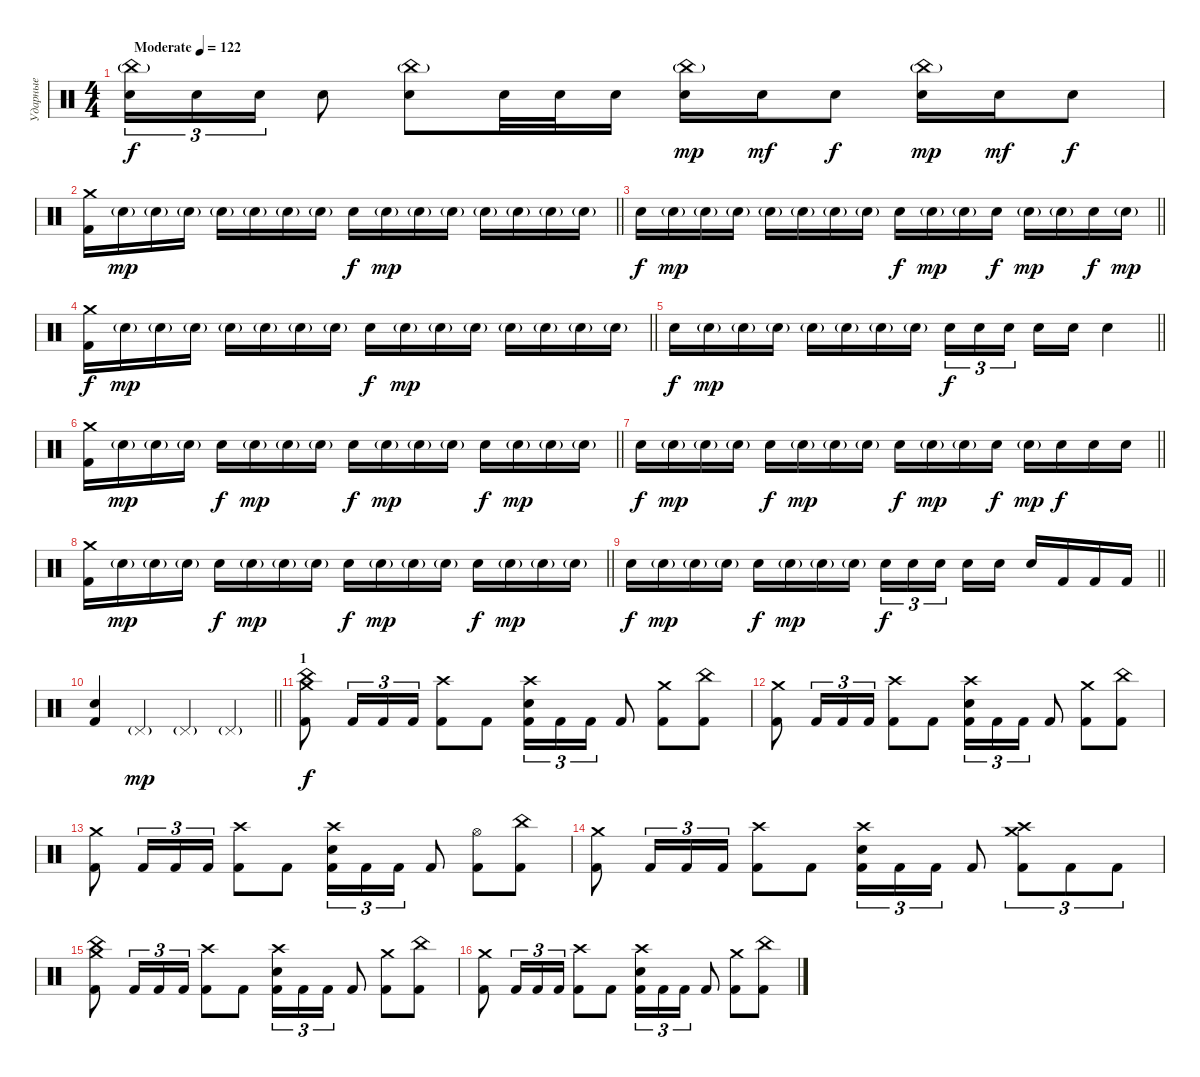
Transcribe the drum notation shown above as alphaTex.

\track ("Ударные" "Ударные") {instrument percussion}
\staff {score}
\articulation defaults
\ts (4 4)
\tempo (122 "Moderate")
\clef neutral
\ks c
("China (hit)"{g} "Snare (hit) 2").16{tu (3 2) dy f volume 7} "Snare (hit) 2".16{tu (3 2)} "Snare (hit) 2".16{tu (3 2)} "Snare (hit) 2".8 ("China (hit)"{g} "Snare (hit) 2").8 "Snare (hit) 2".32 "Snare (hit) 2".32 "Snare (hit) 2".16 ("China (hit)"{g} "Snare (hit) 2").16{dy mp} "Snare (hit) 2".16{dy mf} "Snare (hit) 2".8{dy f} ("China (hit)"{g} "Snare (hit) 2").16{dy mp} "Snare (hit) 2".16{dy mf} "Snare (hit) 2".8{dy f} |
\barLineRight lightlight
("Crash medium (hit)" "Kick (hit) 2").16{volume 13} "Electric Snare (hit)"{g}.16{dy mp} "Electric Snare (hit)"{g}.16 "Electric Snare (hit)"{g}.16 "Electric Snare (hit)"{g}.16 "Electric Snare (hit)"{g}.16 "Electric Snare (hit)"{g}.16 "Electric Snare (hit)"{g}.16 "Electric Snare (hit)".16{dy f} "Electric Snare (hit)"{g}.16{dy mp} "Electric Snare (hit)"{g}.16 "Electric Snare (hit)"{g}.16 "Electric Snare (hit)"{g}.16 "Electric Snare (hit)"{g}.16 "Electric Snare (hit)"{g}.16 "Electric Snare (hit)"{g}.16 |
\barLineRight lightlight "Electric Snare (hit)".16{dy f} "Electric Snare (hit)"{g}.16{dy mp} "Electric Snare (hit)"{g}.16 "Electric Snare (hit)"{g}.16 "Electric Snare (hit)"{g}.16 "Electric Snare (hit)"{g}.16 "Electric Snare (hit)"{g}.16 "Electric Snare (hit)"{g}.16 "Electric Snare (hit)".16{dy f} "Electric Snare (hit)"{g}.16{dy mp} "Electric Snare (hit)"{g}.16 "Electric Snare (hit)".16{dy f} "Electric Snare (hit)"{g}.16{dy mp} "Electric Snare (hit)"{g}.16 "Electric Snare (hit)".16{dy f} "Electric Snare (hit)"{g}.16{dy mp}
|
\barLineRight lightlight
("Crash medium (hit)" "Kick (hit) 2").16{dy f} "Electric Snare (hit)"{g}.16{dy mp} "Electric Snare (hit)"{g}.16 "Electric Snare (hit)"{g}.16 "Electric Snare (hit)"{g}.16 "Electric Snare (hit)"{g}.16 "Electric Snare (hit)"{g}.16 "Electric Snare (hit)"{g}.16 "Electric Snare (hit)".16{dy f} "Electric Snare (hit)"{g}.16{dy mp} "Electric Snare (hit)"{g}.16 "Electric Snare (hit)"{g}.16 "Electric Snare (hit)"{g}.16 "Electric Snare (hit)"{g}.16 "Electric Snare (hit)"{g}.16 "Electric Snare (hit)"{g}.16 |
\barLineRight lightlight "Electric Snare (hit)".16{dy f} "Electric Snare (hit)"{g}.16{dy mp} "Electric Snare (hit)"{g}.16 "Electric Snare (hit)"{g}.16 "Electric Snare (hit)"{g}.16 "Electric Snare (hit)"{g}.16 "Electric Snare (hit)"{g}.16 "Electric Snare (hit)"{g}.16 "Electric Snare (hit)".16{tu (3 2) dy f} "Electric Snare (hit)".16{tu (3 2)} "Electric Snare (hit)".16{tu (3 2) beam splitsecondary} "Electric Snare (hit)".16 "Electric Snare (hit)".16 "Electric Snare (hit)".4
|
\barLineRight lightlight
("Crash medium (hit)" "Kick (hit) 2").16 "Electric Snare (hit)"{g}.16{dy mp} "Electric Snare (hit)"{g}.16 "Electric Snare (hit)"{g}.16 "Electric Snare (hit)".16{dy f} "Electric Snare (hit)"{g}.16{dy mp} "Electric Snare (hit)"{g}.16 "Electric Snare (hit)"{g}.16 "Electric Snare (hit)".16{dy f} "Electric Snare (hit)"{g}.16{dy mp} "Electric Snare (hit)"{g}.16 "Electric Snare (hit)"{g}.16 "Electric Snare (hit)".16{dy f} "Electric Snare (hit)"{g}.16{dy mp} "Electric Snare (hit)"{g}.16 "Electric Snare (hit)"{g}.16 |
\barLineRight lightlight "Electric Snare (hit)".16{dy f} "Electric Snare (hit)"{g}.16{dy mp} "Electric Snare (hit)"{g}.16 "Electric Snare (hit)"{g}.16 "Electric Snare (hit)".16{dy f} "Electric Snare (hit)"{g}.16{dy mp} "Electric Snare (hit)"{g}.16 "Electric Snare (hit)"{g}.16 "Electric Snare (hit)".16{dy f} "Electric Snare (hit)"{g}.16{dy mp} "Electric Snare (hit)"{g}.16 "Electric Snare (hit)".16{dy f} "Electric Snare (hit)"{g}.16{dy mp} "Electric Snare (hit)".16{dy f} "Electric Snare (hit)".16 "Electric Snare (hit)".16
|
\barLineRight lightlight
("Crash medium (hit)" "Kick (hit) 2").16 "Electric Snare (hit)"{g}.16{dy mp} "Electric Snare (hit)"{g}.16 "Electric Snare (hit)"{g}.16 "Electric Snare (hit)".16{dy f} "Electric Snare (hit)"{g}.16{dy mp} "Electric Snare (hit)"{g}.16 "Electric Snare (hit)"{g}.16 "Electric Snare (hit)".16{dy f} "Electric Snare (hit)"{g}.16{dy mp} "Electric Snare (hit)"{g}.16 "Electric Snare (hit)"{g}.16 "Electric Snare (hit)".16{dy f} "Electric Snare (hit)"{g}.16{dy mp} "Electric Snare (hit)"{g}.16 "Electric Snare (hit)"{g}.16 |
\barLineRight lightlight "Electric Snare (hit)".16{dy f} "Electric Snare (hit)"{g}.16{dy mp} "Electric Snare (hit)"{g}.16 "Electric Snare (hit)"{g}.16 "Electric Snare (hit)".16{dy f} "Electric Snare (hit)"{g}.16{dy mp} "Electric Snare (hit)"{g}.16 "Electric Snare (hit)"{g}.16 "Electric Snare (hit)".16{tu (3 2) dy f} "Electric Snare (hit)".16{tu (3 2)} "Electric Snare (hit)".16{tu (3 2) beam splitsecondary} "Electric Snare (hit)".16 "Electric Snare (hit)".16 "Electric Snare (hit)".16 "Kick (hit) 2".16 "Kick (hit) 2".16 "Kick (hit) 2".16
|
\barLineRight lightlight
("Electric Snare (hit)" "Kick (hit) 2").4 "Pedal Hi-Hat (hit)"{g}.4{dy mp} "Pedal Hi-Hat (hit)"{g}.4 "Pedal Hi-Hat (hit)"{g}.4 |
\section ("" "1")
("China (hit)" "Crash medium (hit)" "Kick (hit) 2").8{dy f} "Kick (hit) 2".16{tu (3 2)} "Kick (hit) 2".16{tu (3 2)} "Kick (hit) 2".16{tu (3 2)} ("Crash high (hit)" "Kick (hit) 2").8 "Kick (hit) 2".8 ("Crash high (hit)" "Electric Snare (hit)" "Kick (hit) 2").16{tu (3 2)} "Kick (hit) 2".16{tu (3 2)} "Kick (hit) 2".16{tu (3 2)} "Kick (hit) 2".8 ("Crash medium (hit)" "Kick (hit) 2").8 ("China (hit)" "Kick (hit) 2").8 |
("Crash medium (hit)" "Kick (hit) 2").8 "Kick (hit) 2".16{tu (3 2)} "Kick (hit) 2".16{tu (3 2)} "Kick (hit) 2".16{tu (3 2)} ("Crash high (hit)" "Kick (hit) 2").8 "Kick (hit) 2".8 ("Crash high (hit)" "Electric Snare (hit)" "Kick (hit) 2").16{tu (3 2)} "Kick (hit) 2".16{tu (3 2)} "Kick (hit) 2".16{tu (3 2)} "Kick (hit) 2".8 ("Crash medium (hit)" "Kick (hit) 2").8 ("China (hit)" "Kick (hit) 2").8 |
("Crash medium (hit)" "Kick (hit) 2").8 "Kick (hit) 2".16{tu (3 2)} "Kick (hit) 2".16{tu (3 2)} "Kick (hit) 2".16{tu (3 2)} ("Crash high (hit)" "Kick (hit) 2").8 "Kick (hit) 2".8 ("Crash high (hit)" "Electric Snare (hit)" "Kick (hit) 2").16{tu (3 2)} "Kick (hit) 2".16{tu (3 2)} "Kick (hit) 2".16{tu (3 2)} "Kick (hit) 2".8 ("Hi-Hat (open)" "Kick (hit) 2").8 ("China (hit)" "Kick (hit) 2").8 |
("Crash medium (hit)" "Kick (hit) 2").8 "Kick (hit) 2".16{tu (3 2)} "Kick (hit) 2".16{tu (3 2)} "Kick (hit) 2".16{tu (3 2)} ("Crash high (hit)" "Kick (hit) 2").8 "Kick (hit) 2".8 ("Crash high (hit)" "Electric Snare (hit)" "Kick (hit) 2").16{tu (3 2)} "Kick (hit) 2".16{tu (3 2)} "Kick (hit) 2".16{tu (3 2)} "Kick (hit) 2".8 ("Crash high (hit)" "Crash medium (hit)" "Kick (hit) 2").8{tu (3 2)} "Kick (hit) 2".8{tu (3 2)} "Kick (hit) 2".8{tu (3 2)} |
("China (hit)" "Crash medium (hit)" "Kick (hit) 2").8 "Kick (hit) 2".16{tu (3 2)} "Kick (hit) 2".16{tu (3 2)} "Kick (hit) 2".16{tu (3 2)} ("Crash high (hit)" "Kick (hit) 2").8 "Kick (hit) 2".8 ("Crash high (hit)" "Electric Snare (hit)" "Kick (hit) 2").16{tu (3 2)} "Kick (hit) 2".16{tu (3 2)} "Kick (hit) 2".16{tu (3 2)} "Kick (hit) 2".8 ("Crash medium (hit)" "Kick (hit) 2").8 ("China (hit)" "Kick (hit) 2").8 |
("Crash medium (hit)" "Kick (hit) 2").8 "Kick (hit) 2".16{tu (3 2)} "Kick (hit) 2".16{tu (3 2)} "Kick (hit) 2".16{tu (3 2)} ("Crash high (hit)" "Kick (hit) 2").8 "Kick (hit) 2".8 ("Crash high (hit)" "Electric Snare (hit)" "Kick (hit) 2").16{tu (3 2)} "Kick (hit) 2".16{tu (3 2)} "Kick (hit) 2".16{tu (3 2)} "Kick (hit) 2".8 ("Crash medium (hit)" "Kick (hit) 2").8 ("China (hit)" "Kick (hit) 2").8
